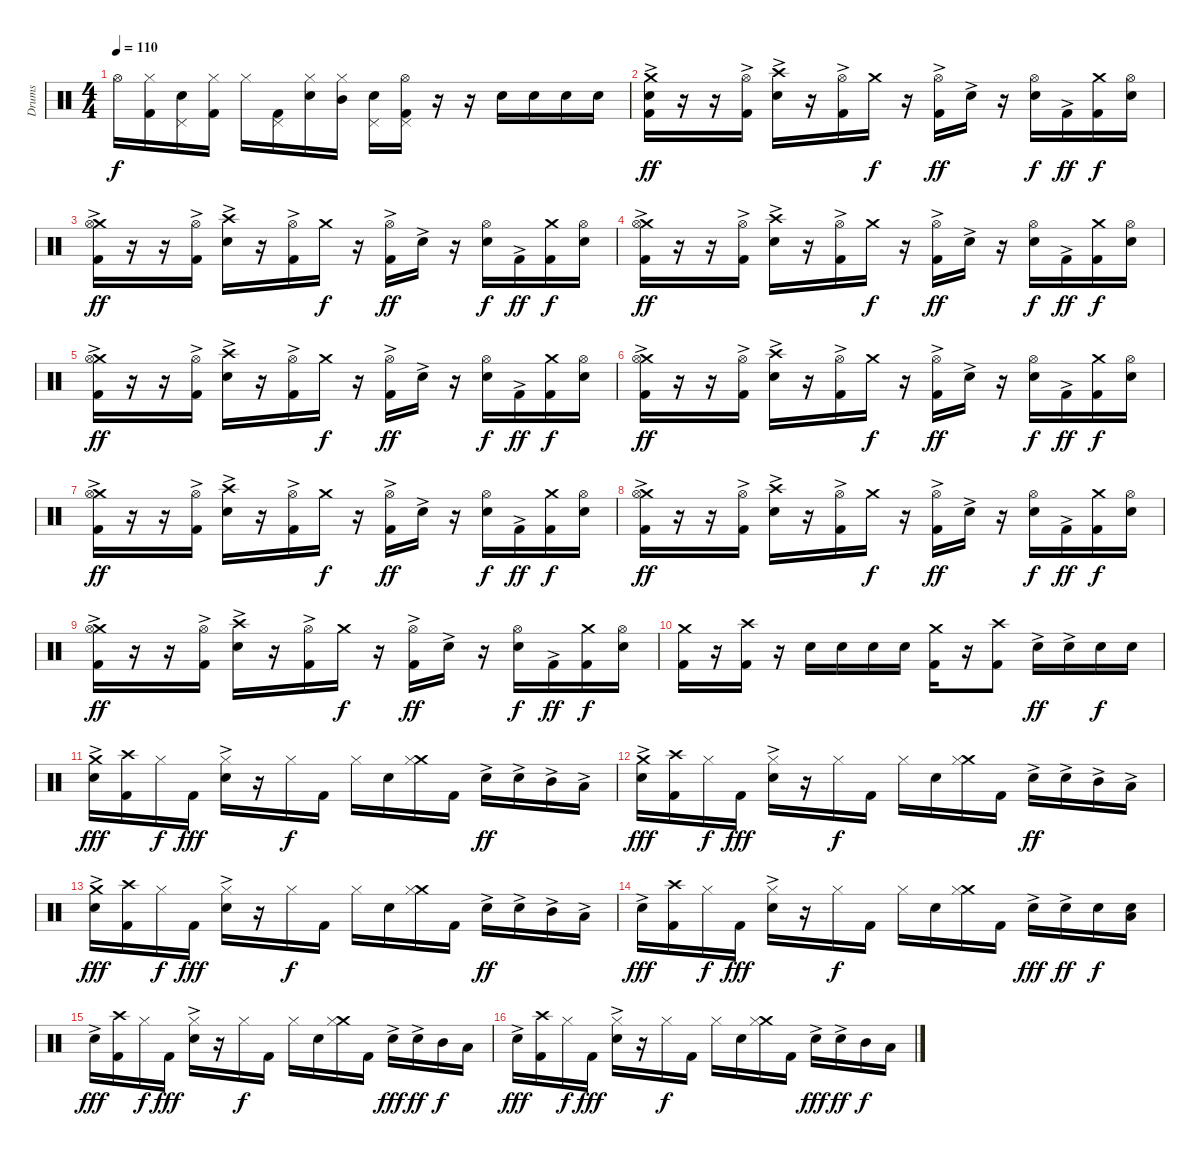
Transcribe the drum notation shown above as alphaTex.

\track ("Drums" "Drums") {instrument percussion}
\staff {score}
\articulation defaults
\ts (4 4)
\tempo 110
\clef neutral
\ks c "Hi-Hat (open)".16{dy f}
("Hi-Hat (closed)" "Kick (hit) 2").16 ("Pedal Hi-Hat (hit)" "Snare (hit) 2").16 ("Hi-Hat (closed)" "Kick (hit) 2").16 "Hi-Hat (closed)".16 ("Pedal Hi-Hat (hit)" "Kick (hit) 2").16 ("Hi-Hat (closed)" "Snare (hit) 2").16 ("Mid Tom (hit)" "Hi-Hat (closed)").16 ("Pedal Hi-Hat (hit)" "Snare (hit) 2").16 ("Hi-Hat (open)" "Pedal Hi-Hat (hit)" "Kick (hit) 2").16 r.16 r.16 "Electric Snare (hit)".16 "Electric Snare (hit)".16 "Electric Snare (hit)".16 "Electric Snare (hit)".16 |
("Crash medium (hit)" "Electric Snare (hit)" "Kick (hit) 2"{ac}).16{dy ff} r.16 r.16 ("Hi-Hat (open)" "Kick (hit) 2"{ac}).16 ("Crash high (hit)" "Snare (hit) 2"{ac}).16 r.16 ("Hi-Hat (open)" "Kick (hit) 2"{ac}).16 "Crash medium (hit)".16{dy f} r.16 ("Hi-Hat (open)" "Kick (hit) 2"{ac}).16{dy ff} "Snare (hit) 2"{ac}.16 r.16 ("Hi-Hat (open)" "Snare (hit) 2").16{dy f} "Kick (hit) 2"{ac}.16{dy ff} ("Crash medium (hit)" "Kick (hit) 2").16{dy f} ("Hi-Hat (open)" "Snare (hit) 2").16 |
("Crash medium (hit)" "Hi-Hat (open)" "Kick (hit) 2"{ac}).16{dy ff} r.16 r.16 ("Hi-Hat (open)" "Kick (hit) 2"{ac}).16 ("Crash high (hit)" "Snare (hit) 2"{ac}).16 r.16 ("Hi-Hat (open)" "Kick (hit) 2"{ac}).16 "Crash medium (hit)".16{dy f} r.16 ("Hi-Hat (open)" "Kick (hit) 2"{ac}).16{dy ff} "Snare (hit) 2"{ac}.16 r.16 ("Hi-Hat (open)" "Snare (hit) 2").16{dy f} "Kick (hit) 2"{ac}.16{dy ff} ("Crash medium (hit)" "Kick (hit) 2").16{dy f} ("Hi-Hat (open)" "Snare (hit) 2").16 |
("Crash medium (hit)" "Hi-Hat (open)" "Kick (hit) 2"{ac}).16{dy ff} r.16 r.16 ("Hi-Hat (open)" "Kick (hit) 2"{ac}).16 ("Crash high (hit)" "Snare (hit) 2"{ac}).16 r.16 ("Hi-Hat (open)" "Kick (hit) 2"{ac}).16 "Crash medium (hit)".16{dy f} r.16 ("Hi-Hat (open)" "Kick (hit) 2"{ac}).16{dy ff} "Snare (hit) 2"{ac}.16 r.16 ("Hi-Hat (open)" "Snare (hit) 2").16{dy f} "Kick (hit) 2"{ac}.16{dy ff} ("Crash medium (hit)" "Kick (hit) 2").16{dy f} ("Hi-Hat (open)" "Snare (hit) 2").16 |
("Crash medium (hit)" "Hi-Hat (open)" "Kick (hit) 2"{ac}).16{dy ff} r.16 r.16 ("Hi-Hat (open)" "Kick (hit) 2"{ac}).16 ("Crash high (hit)" "Snare (hit) 2"{ac}).16 r.16 ("Hi-Hat (open)" "Kick (hit) 2"{ac}).16 "Crash medium (hit)".16{dy f} r.16 ("Hi-Hat (open)" "Kick (hit) 2"{ac}).16{dy ff} "Snare (hit) 2"{ac}.16 r.16 ("Hi-Hat (open)" "Snare (hit) 2").16{dy f} "Kick (hit) 2"{ac}.16{dy ff} ("Crash medium (hit)" "Kick (hit) 2").16{dy f} ("Hi-Hat (open)" "Snare (hit) 2").16 |
("Crash medium (hit)" "Hi-Hat (open)" "Kick (hit) 2"{ac}).16{dy ff} r.16 r.16 ("Hi-Hat (open)" "Kick (hit) 2"{ac}).16 ("Crash high (hit)" "Snare (hit) 2"{ac}).16 r.16 ("Hi-Hat (open)" "Kick (hit) 2"{ac}).16 "Crash medium (hit)".16{dy f} r.16 ("Hi-Hat (open)" "Kick (hit) 2"{ac}).16{dy ff} "Snare (hit) 2"{ac}.16 r.16 ("Hi-Hat (open)" "Snare (hit) 2").16{dy f} "Kick (hit) 2"{ac}.16{dy ff} ("Crash medium (hit)" "Kick (hit) 2").16{dy f} ("Hi-Hat (open)" "Snare (hit) 2").16 |
("Crash medium (hit)" "Hi-Hat (open)" "Kick (hit) 2"{ac}).16{dy ff} r.16 r.16 ("Hi-Hat (open)" "Kick (hit) 2"{ac}).16 ("Crash high (hit)" "Snare (hit) 2"{ac}).16 r.16 ("Hi-Hat (open)" "Kick (hit) 2"{ac}).16 "Crash medium (hit)".16{dy f} r.16 ("Hi-Hat (open)" "Kick (hit) 2"{ac}).16{dy ff} "Snare (hit) 2"{ac}.16 r.16 ("Hi-Hat (open)" "Snare (hit) 2").16{dy f} "Kick (hit) 2"{ac}.16{dy ff} ("Crash medium (hit)" "Kick (hit) 2").16{dy f} ("Hi-Hat (open)" "Snare (hit) 2").16 |
("Crash medium (hit)" "Hi-Hat (open)" "Kick (hit) 2"{ac}).16{dy ff} r.16 r.16 ("Hi-Hat (open)" "Kick (hit) 2"{ac}).16 ("Crash high (hit)" "Snare (hit) 2"{ac}).16 r.16 ("Hi-Hat (open)" "Kick (hit) 2"{ac}).16 "Crash medium (hit)".16{dy f} r.16 ("Hi-Hat (open)" "Kick (hit) 2"{ac}).16{dy ff} "Snare (hit) 2"{ac}.16 r.16 ("Hi-Hat (open)" "Snare (hit) 2").16{dy f} "Kick (hit) 2"{ac}.16{dy ff} ("Crash medium (hit)" "Kick (hit) 2").16{dy f} ("Hi-Hat (open)" "Snare (hit) 2").16 |
("Crash medium (hit)" "Hi-Hat (open)" "Kick (hit) 2"{ac}).16{dy ff} r.16 r.16 ("Hi-Hat (open)" "Kick (hit) 2"{ac}).16 ("Crash high (hit)" "Snare (hit) 2"{ac}).16 r.16 ("Hi-Hat (open)" "Kick (hit) 2"{ac}).16 "Crash medium (hit)".16{dy f} r.16 ("Hi-Hat (open)" "Kick (hit) 2"{ac}).16{dy ff} "Snare (hit) 2"{ac}.16 r.16 ("Hi-Hat (open)" "Snare (hit) 2").16{dy f} "Kick (hit) 2"{ac}.16{dy ff} ("Crash medium (hit)" "Kick (hit) 2").16{dy f} ("Hi-Hat (open)" "Snare (hit) 2").16 |
("Crash medium (hit)" "Kick (hit) 2").16 r.16 ("Crash high (hit)" "Kick (hit) 2").16 r.16 "Electric Snare (hit)".16 "Electric Snare (hit)".16 "Electric Snare (hit)".16 "Electric Snare (hit)".16 ("Crash medium (hit)" "Kick (hit) 2").16 r.16 ("Crash high (hit)" "Kick (hit) 2").8 "Electric Snare (hit)"{ac}.16{dy ff} "Electric Snare (hit)"{ac}.16 "Electric Snare (hit)".16{dy f} "Electric Snare (hit)".16 |
("Crash medium (hit)" "Electric Snare (hit)"{ac}).16{dy fff} ("Crash high (hit)" "Kick (hit) 2").16 "Hi-Hat (closed)".16{dy f} "Kick (hit) 2".16{dy fff} ("Hi-Hat (closed)" "Snare (hit) 2"{ac}).16 r.16 "Hi-Hat (closed)".16{dy f} "Kick (hit) 2".16 "Hi-Hat (closed)".16 "Snare (hit) 2".16 ("Crash medium (hit)" "Hi-Hat (closed)").16 "Kick (hit) 2".16 "Electric Snare (hit)"{ac}.16{dy ff} "Electric Snare (hit)"{ac}.16 "Mid Tom (hit)"{ac}.16 "Low Tom (hit)"{ac}.16 |
("Crash medium (hit)" "Electric Snare (hit)"{ac}).16{dy fff} ("Crash high (hit)" "Kick (hit) 2").16 "Hi-Hat (closed)".16{dy f} "Kick (hit) 2".16{dy fff} ("Hi-Hat (closed)" "Snare (hit) 2"{ac}).16 r.16 "Hi-Hat (closed)".16{dy f} "Kick (hit) 2".16 "Hi-Hat (closed)".16 "Snare (hit) 2".16 ("Crash medium (hit)" "Hi-Hat (closed)").16 "Kick (hit) 2".16 "Electric Snare (hit)"{ac}.16{dy ff} "Electric Snare (hit)"{ac}.16 "Mid Tom (hit)"{ac}.16 "Low Tom (hit)"{ac}.16 |
("Crash medium (hit)" "Electric Snare (hit)"{ac}).16{dy fff} ("Crash high (hit)" "Kick (hit) 2").16 "Hi-Hat (closed)".16{dy f} "Kick (hit) 2".16{dy fff} ("Hi-Hat (closed)" "Snare (hit) 2"{ac}).16 r.16 "Hi-Hat (closed)".16{dy f} "Kick (hit) 2".16 "Hi-Hat (closed)".16 "Snare (hit) 2".16 ("Crash medium (hit)" "Hi-Hat (closed)").16 "Kick (hit) 2".16 "Electric Snare (hit)"{ac}.16{dy ff} "Electric Snare (hit)"{ac}.16 "Mid Tom (hit)"{ac}.16 "Low Tom (hit)"{ac}.16 |
"Electric Snare (hit)"{ac}.16{dy fff} ("Crash high (hit)" "Kick (hit) 2").16 "Hi-Hat (closed)".16{dy f} "Kick (hit) 2".16{dy fff} ("Hi-Hat (closed)" "Snare (hit) 2"{ac}).16 r.16 "Hi-Hat (closed)".16{dy f} "Kick (hit) 2".16 "Hi-Hat (closed)".16 "Snare (hit) 2".16 ("Crash medium (hit)" "Hi-Hat (closed)").16 "Kick (hit) 2".16 "Electric Snare (hit)"{ac}.16{dy fff} "Electric Snare (hit)"{ac}.16{dy ff} "Electric Snare (hit)".16{dy f} ("Low Tom (hit)" "Electric Snare (hit)").16 |
"Electric Snare (hit)"{ac}.16{dy fff} ("Crash high (hit)" "Kick (hit) 2").16 "Hi-Hat (closed)".16{dy f} "Kick (hit) 2".16{dy fff} ("Hi-Hat (closed)" "Snare (hit) 2"{ac}).16 r.16 "Hi-Hat (closed)".16{dy f} "Kick (hit) 2".16 "Hi-Hat (closed)".16 "Snare (hit) 2".16 ("Crash medium (hit)" "Hi-Hat (closed)").16 "Kick (hit) 2".16 "Electric Snare (hit)"{ac}.16{dy fff} "Electric Snare (hit)"{ac}.16{dy ff} "Mid Tom (hit)".16{dy f} "Low Tom (hit)".16 |
"Electric Snare (hit)"{ac}.16{dy fff} ("Crash high (hit)" "Kick (hit) 2").16 "Hi-Hat (closed)".16{dy f} "Kick (hit) 2".16{dy fff} ("Hi-Hat (closed)" "Snare (hit) 2"{ac}).16 r.16 "Hi-Hat (closed)".16{dy f} "Kick (hit) 2".16 "Hi-Hat (closed)".16 "Snare (hit) 2".16 ("Crash medium (hit)" "Hi-Hat (closed)").16 "Kick (hit) 2".16 "Electric Snare (hit)"{ac}.16{dy fff} "Electric Snare (hit)"{ac}.16{dy ff} "Mid Tom (hit)".16{dy f} "Low Tom (hit)".16
